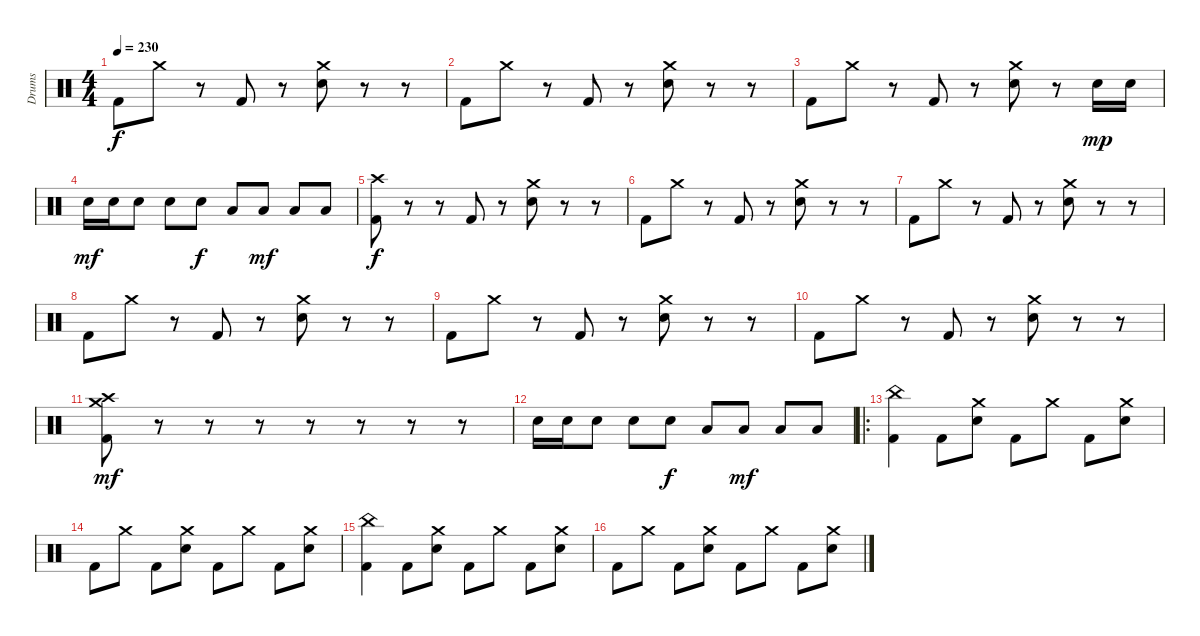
\track ("Drums" "Drums") {instrument percussion}
\staff {score}
\articulation defaults
\ts (4 4)
\tempo 230
\clef neutral
\ks c "Kick (hit) 2".8{dy f} "Crash medium (hit)".8
r.8 "Kick (hit) 2".8 r.8 ("Electric Snare (hit)" "Crash medium (hit)").8 r.8 r.8 |
"Kick (hit) 2".8 "Crash medium (hit)".8 r.8 "Kick (hit) 2".8 r.8 ("Electric Snare (hit)" "Crash medium (hit)").8 r.8 r.8 |
"Kick (hit) 2".8 "Crash medium (hit)".8 r.8 "Kick (hit) 2".8 r.8 ("Electric Snare (hit)" "Crash medium (hit)").8 r.8 "Electric Snare (hit)".16{dy mp} "Electric Snare (hit)".16 |
"Electric Snare (hit)".16{dy mf} "Electric Snare (hit)".16 "Electric Snare (hit)".8 "Electric Snare (hit)".8 "Electric Snare (hit)".8{dy f} "Low Tom (hit)".8 "Low Tom (hit)".8{dy mf} "Low Tom (hit)".8 "Low Tom (hit)".8 |
("Kick (hit) 2" "Crash high (hit)").8{dy f} r.8 r.8 "Kick (hit) 2".8 r.8 ("Electric Snare (hit)" "Crash medium (hit)").8 r.8 r.8 |
"Kick (hit) 2".8 "Crash medium (hit)".8 r.8 "Kick (hit) 2".8 r.8 ("Electric Snare (hit)" "Crash medium (hit)").8 r.8 r.8 |
"Kick (hit) 2".8 "Crash medium (hit)".8 r.8 "Kick (hit) 2".8 r.8 ("Electric Snare (hit)" "Crash medium (hit)").8 r.8 r.8 |
"Kick (hit) 2".8 "Crash medium (hit)".8 r.8 "Kick (hit) 2".8 r.8 ("Electric Snare (hit)" "Crash medium (hit)").8 r.8 r.8 |
"Kick (hit) 2".8 "Crash medium (hit)".8 r.8 "Kick (hit) 2".8 r.8 ("Electric Snare (hit)" "Crash medium (hit)").8 r.8 r.8 |
"Kick (hit) 2".8 "Crash medium (hit)".8 r.8 "Kick (hit) 2".8 r.8 ("Electric Snare (hit)" "Crash medium (hit)").8 r.8 r.8 |
("Kick (hit) 2" "Crash high (hit)" "Crash medium (hit)").8{dy mf} r.8 r.8 r.8 r.8 r.8 r.8 r.8 |
"Electric Snare (hit)".16 "Electric Snare (hit)".16 "Electric Snare (hit)".8 "Electric Snare (hit)".8 "Electric Snare (hit)".8{dy f} "Low Tom (hit)".8 "Low Tom (hit)".8{dy mf} "Low Tom (hit)".8 "Low Tom (hit)".8 |
\ro
("Kick (hit) 2" "China (hit)").4 "Kick (hit) 2".8 ("Electric Snare (hit)" "Crash medium (hit)").8 "Kick (hit) 2".8 "Crash medium (hit)".8 "Kick (hit) 2".8 ("Electric Snare (hit)" "Crash medium (hit)").8 |
"Kick (hit) 2".8 "Crash medium (hit)".8 "Kick (hit) 2".8 ("Electric Snare (hit)" "Crash medium (hit)").8 "Kick (hit) 2".8 "Crash medium (hit)".8 "Kick (hit) 2".8 ("Electric Snare (hit)" "Crash medium (hit)").8 |
("Kick (hit) 2" "China (hit)").4 "Kick (hit) 2".8 ("Electric Snare (hit)" "Crash medium (hit)").8 "Kick (hit) 2".8 "Crash medium (hit)".8 "Kick (hit) 2".8 ("Electric Snare (hit)" "Crash medium (hit)").8 |
"Kick (hit) 2".8 "Crash medium (hit)".8 "Kick (hit) 2".8 ("Electric Snare (hit)" "Crash medium (hit)").8 "Kick (hit) 2".8 "Crash medium (hit)".8 "Kick (hit) 2".8 ("Electric Snare (hit)" "Crash medium (hit)").8
